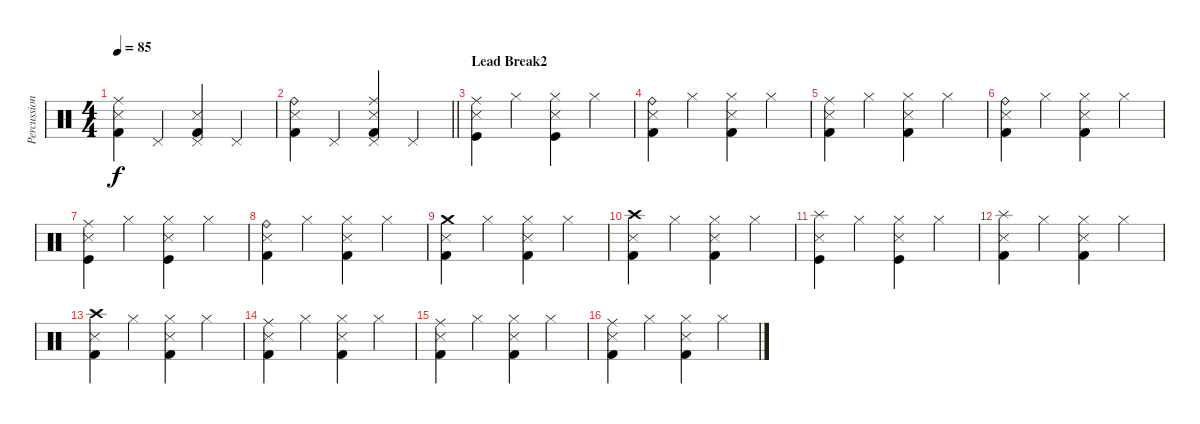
\track ("Percussion" "Percussion") {instrument percussion}
\staff {score}
\articulation defaults
\ts (4 4)
\tempo 85
\clef neutral
\ks c
("Ride (middle)" "Snare (side stick) 3" "Kick (hit) 2").4{dy f} "Pedal Hi-Hat (hit)".4 ("Pedal Hi-Hat (hit)" "Snare (side stick) 3" "Kick (hit) 2").4 "Pedal Hi-Hat (hit)".4 |
\barLineRight lightlight
("Ride (bell)" "Snare (side stick) 3" "Kick (hit) 2").4 "Pedal Hi-Hat (hit)".4 ("Ride (middle)" "Pedal Hi-Hat (hit)" "Snare (side stick) 3" "Kick (hit) 2").4 "Pedal Hi-Hat (hit)".4 |
\section ("" "Lead Break2")
("Ride (middle)" "Snare (side stick) 3" "Kick (hit)").4 "Hi-Hat (closed)".4 ("Hi-Hat (closed)" "Snare (side stick) 3" "Kick (hit)").4 "Hi-Hat (closed)".4 |
("Ride (bell)" "Snare (side stick) 3" "Kick (hit) 2").4 "Hi-Hat (closed)".4 ("Hi-Hat (closed)" "Snare (side stick) 3" "Kick (hit) 2").4 "Hi-Hat (closed)".4 |
("Ride (middle)" "Snare (side stick) 3" "Kick (hit) 2").4 "Hi-Hat (closed)".4 ("Hi-Hat (closed)" "Snare (side stick) 3" "Kick (hit) 2").4 "Hi-Hat (closed)".4 |
("Ride (bell)" "Snare (side stick) 3" "Kick (hit) 2").4 "Hi-Hat (closed)".4 ("Hi-Hat (closed)" "Snare (side stick) 3" "Kick (hit) 2").4 "Hi-Hat (closed)".4 |
("Ride (middle)" "Snare (side stick) 3" "Kick (hit)").4 "Hi-Hat (closed)".4 ("Hi-Hat (closed)" "Snare (side stick) 3" "Kick (hit)").4 "Hi-Hat (closed)".4 |
("Ride (bell)" "Snare (side stick) 3" "Kick (hit) 2").4 "Hi-Hat (closed)".4 ("Hi-Hat (closed)" "Snare (side stick) 3" "Kick (hit) 2").4 "Hi-Hat (closed)".4 |
("Crash medium (hit)" "Snare (side stick) 3" "Kick (hit) 2").4 "Hi-Hat (closed)".4 ("Hi-Hat (closed)" "Snare (side stick) 3" "Kick (hit) 2").4 "Hi-Hat (closed)".4 |
("Crash high (hit)" "Snare (side stick) 3" "Kick (hit) 2").4 "Hi-Hat (closed)".4 ("Hi-Hat (closed)" "Snare (side stick) 3" "Kick (hit) 2").4 "Hi-Hat (closed)".4 |
("Splash (hit)" "Snare (side stick) 3" "Kick (hit)").4 "Hi-Hat (closed)".4 ("Hi-Hat (closed)" "Snare (side stick) 3" "Kick (hit)").4 "Hi-Hat (closed)".4 |
("Splash (hit)" "Snare (side stick) 3" "Kick (hit) 2").4 "Hi-Hat (closed)".4 ("Hi-Hat (closed)" "Snare (side stick) 3" "Kick (hit) 2").4 "Hi-Hat (closed)".4 |
("Crash high (hit)" "Snare (side stick) 3" "Kick (hit) 2").4 "Hi-Hat (closed)".4 ("Hi-Hat (closed)" "Snare (side stick) 3" "Kick (hit) 2").4 "Hi-Hat (closed)".4 |
("Ride (middle)" "Snare (side stick) 3" "Kick (hit) 2").4 "Hi-Hat (closed)".4 ("Hi-Hat (closed)" "Snare (side stick) 3" "Kick (hit) 2").4 "Hi-Hat (closed)".4 |
("Ride (middle)" "Snare (side stick) 3" "Kick (hit) 2").4 "Hi-Hat (closed)".4 ("Hi-Hat (closed)" "Snare (side stick) 3" "Kick (hit) 2").4 "Hi-Hat (closed)".4 |
("Ride (middle)" "Snare (side stick) 3" "Kick (hit) 2").4 "Hi-Hat (closed)".4 ("Hi-Hat (closed)" "Snare (side stick) 3" "Kick (hit) 2").4 "Hi-Hat (closed)".4
